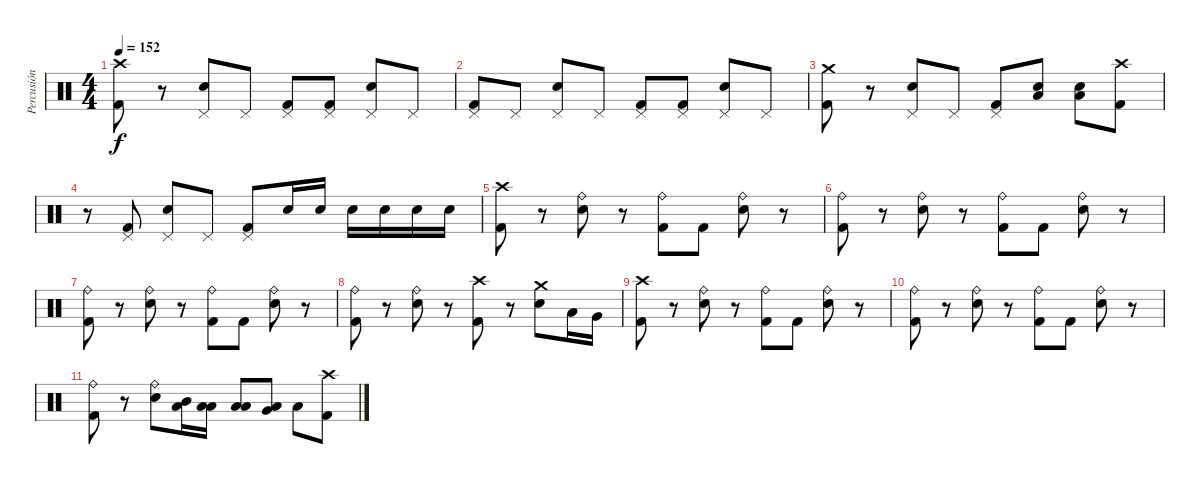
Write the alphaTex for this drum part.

\track ("Percusión" "Percusión") {instrument percussion}
\staff {score}
\articulation defaults
\ts (4 4)
\tempo 152
\clef neutral
\ks c
("Kick (hit) 2" "Crash high (hit)").8{dy f} r.8 ("Snare (hit) 2" "Pedal Hi-Hat (hit)").8 "Pedal Hi-Hat (hit)".8 ("Kick (hit) 2" "Pedal Hi-Hat (hit)").8 ("Kick (hit) 2" "Pedal Hi-Hat (hit)").8 ("Snare (hit) 2" "Pedal Hi-Hat (hit)").8 "Pedal Hi-Hat (hit)".8 |
("Kick (hit) 2" "Pedal Hi-Hat (hit)").8 "Pedal Hi-Hat (hit)".8 ("Snare (hit) 2" "Pedal Hi-Hat (hit)").8 "Pedal Hi-Hat (hit)".8 ("Kick (hit) 2" "Pedal Hi-Hat (hit)").8 ("Kick (hit) 2" "Pedal Hi-Hat (hit)").8 ("Snare (hit) 2" "Pedal Hi-Hat (hit)").8 "Pedal Hi-Hat (hit)".8 |
("Kick (hit) 2" "Crash medium (hit)").8 r.8 ("Snare (hit) 2" "Pedal Hi-Hat (hit)").8 "Pedal Hi-Hat (hit)".8 ("Kick (hit) 2" "Pedal Hi-Hat (hit)").8 ("Snare (hit) 2" "Low Floor Tom (hit)").8 ("Snare (hit) 2" "Low Floor Tom (hit)").8 ("Kick (hit) 2" "Crash high (hit)").8 |
r.8 ("Kick (hit) 2" "Pedal Hi-Hat (hit)").8 ("Snare (hit) 2" "Pedal Hi-Hat (hit)").8 "Pedal Hi-Hat (hit)".8 ("Kick (hit) 2" "Pedal Hi-Hat (hit)").8 "Snare (hit) 2".16 "Snare (hit) 2".16 "Snare (hit) 2".16 "Snare (hit) 2".16 "Snare (hit) 2".16 "Snare (hit) 2".16 |
("Kick (hit) 2" "Crash high (hit)").8 r.8 ("Snare (hit) 2" "Ride (bell)").8 r.8 ("Kick (hit) 2" "Ride (bell)").8 "Kick (hit) 2".8 ("Snare (hit) 2" "Ride (bell)").8 r.8 |
("Kick (hit) 2" "Ride (bell)").8 r.8 ("Snare (hit) 2" "Ride (bell)").8 r.8 ("Kick (hit) 2" "Ride (bell)").8 "Kick (hit) 2".8 ("Snare (hit) 2" "Ride (bell)").8 r.8 |
("Kick (hit) 2" "Ride (bell)").8 r.8 ("Snare (hit) 2" "Ride (bell)").8 r.8 ("Kick (hit) 2" "Ride (bell)").8 "Kick (hit) 2".8 ("Snare (hit) 2" "Ride (bell)").8 r.8 |
("Kick (hit) 2" "Ride (bell)").8 r.8 ("Snare (hit) 2" "Ride (bell)").8 r.8 ("Kick (hit) 2" "Crash high (hit)").8 r.8 ("Snare (hit) 2" "Crash medium (hit)").8 "Low Tom (hit)".16 "Very Low Tom (hit)".16 |
("Kick (hit) 2" "Crash high (hit)").8 r.8 ("Snare (hit) 2" "Ride (bell)").8 r.8 ("Kick (hit) 2" "Ride (bell)").8 "Kick (hit) 2".8 ("Snare (hit) 2" "Ride (bell)").8 r.8 |
("Kick (hit) 2" "Ride (bell)").8 r.8 ("Snare (hit) 2" "Ride (bell)").8 r.8 ("Kick (hit) 2" "Ride (bell)").8 "Kick (hit) 2".8 ("Snare (hit) 2" "Ride (bell)").8 r.8 |
("Kick (hit) 2" "Ride (bell)").8 r.8 ("Snare (hit) 2" "Ride (bell)").8 ("Mid Tom (hit)" "Low Floor Tom (hit)").16 ("Low Tom (hit)" "Low Floor Tom (hit)").16 ("Low Tom (hit)" "Low Floor Tom (hit)").8 ("Very Low Tom (hit)" "Low Floor Tom (hit)").8 "Low Floor Tom (hit)".8 ("Kick (hit) 2" "Crash high (hit)").8
